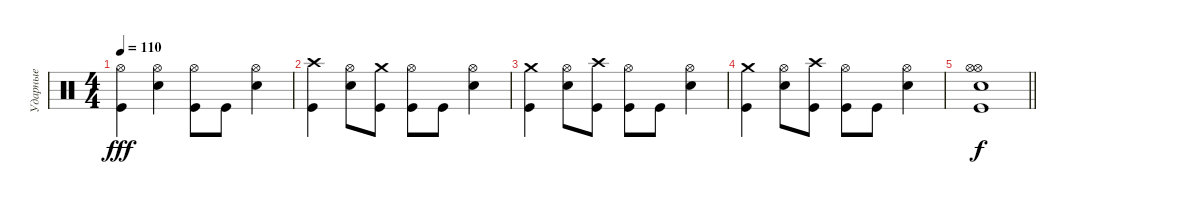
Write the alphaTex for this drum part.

\track ("Ударные" "Ударные") {instrument percussion}
\staff {score}
\articulation defaults
\ts (4 4)
\tempo 110
\clef neutral
\ks c
("Hi-Hat (open)" "Kick (hit)").4{dy fff} ("Hi-Hat (open)" "Electric Snare (hit)").4 ("Hi-Hat (open)" "Kick (hit)").8 "Kick (hit)".8 ("Hi-Hat (open)" "Electric Snare (hit)").4 |
("Crash high (hit)" "Kick (hit)").4 ("Hi-Hat (open)" "Electric Snare (hit)").8 ("Crash medium (hit)" "Kick (hit)").8 ("Hi-Hat (open)" "Kick (hit)").8 "Kick (hit)".8 ("Hi-Hat (open)" "Electric Snare (hit)").4 |
("Crash medium (hit)" "Kick (hit)").4 ("Hi-Hat (open)" "Electric Snare (hit)").8 ("Crash high (hit)" "Kick (hit)").8 ("Hi-Hat (open)" "Kick (hit)").8 "Kick (hit)".8 ("Hi-Hat (open)" "Electric Snare (hit)").4 |
("Crash medium (hit)" "Kick (hit)").4 ("Hi-Hat (open)" "Electric Snare (hit)").8 ("Crash high (hit)" "Kick (hit)").8 ("Hi-Hat (open)" "Kick (hit)").8 "Kick (hit)".8 ("Hi-Hat (open)" "Electric Snare (hit)").4 |
\barLineRight lightlight
("Snare (hit) 2" "Kick (hit)" "Hi-Hat (open)" "Hi-Hat (open)").1{dy f}
